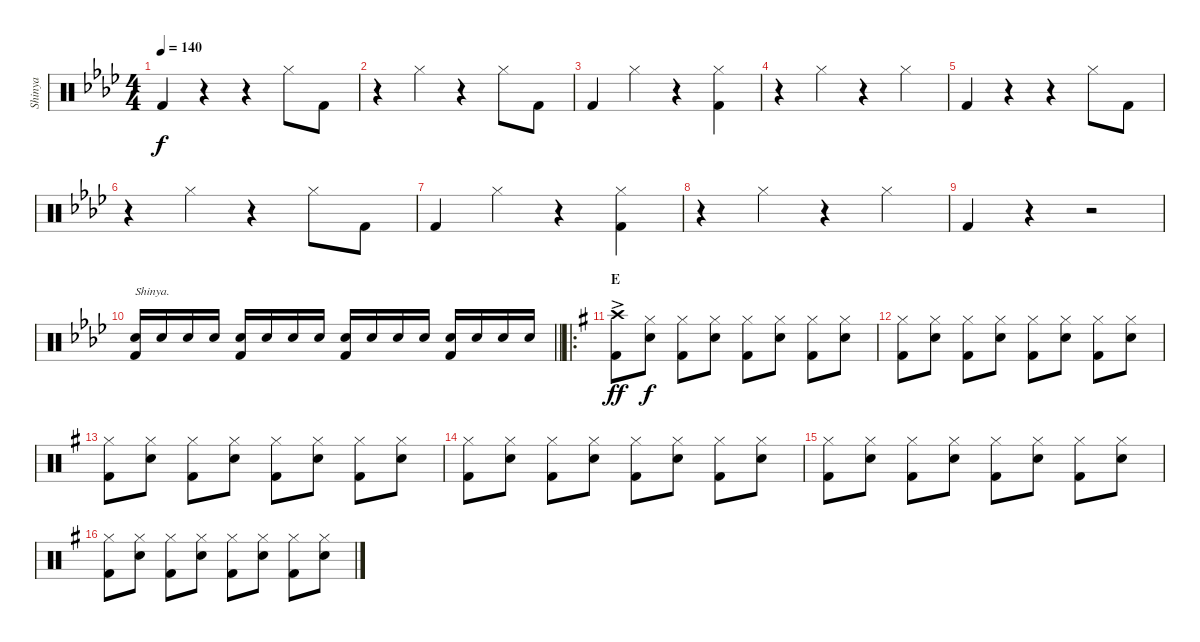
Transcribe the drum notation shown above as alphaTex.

\track ("Shinya" "Shinya") {instrument percussion}
\staff {score}
\articulation defaults
\ts (4 4)
\tempo 140
\clef neutral
\ks ab "Kick (hit) 2".4{dy f}
r.4 r.4 "Hi-Hat (closed)".8 "Kick (hit) 2".8 |
r.4 "Hi-Hat (closed)".4 r.4 "Hi-Hat (closed)".8 "Kick (hit) 2".8 |
"Kick (hit) 2".4 "Hi-Hat (closed)".4 r.4 ("Hi-Hat (closed)" "Kick (hit) 2").4 |
r.4 "Hi-Hat (closed)".4 r.4 "Hi-Hat (closed)".4 |
"Kick (hit) 2".4 r.4 r.4 "Hi-Hat (closed)".8 "Kick (hit) 2".8 |
r.4 "Hi-Hat (closed)".4 r.4 "Hi-Hat (closed)".8 "Kick (hit) 2".8 |
"Kick (hit) 2".4 "Hi-Hat (closed)".4 r.4 ("Hi-Hat (closed)" "Kick (hit) 2").4 |
r.4 "Hi-Hat (closed)".4 r.4 "Hi-Hat (closed)".4 |
"Kick (hit) 2".4 r.4 r.2 |
\barLineRight lightlight
("Snare (hit) 2" "Kick (hit) 2").16{txt "Shinya."} "Snare (hit) 2".16 "Snare (hit) 2".16 "Snare (hit) 2".16 ("Snare (hit) 2" "Kick (hit) 2").16 "Snare (hit) 2".16 "Snare (hit) 2".16 "Snare (hit) 2".16 ("Snare (hit) 2" "Kick (hit) 2").16 "Snare (hit) 2".16 "Snare (hit) 2".16 "Snare (hit) 2".16 ("Snare (hit) 2" "Kick (hit) 2").16 "Snare (hit) 2".16 "Snare (hit) 2".16 "Snare (hit) 2".16 |
\ro
\section ("" "E")
\ks g
("Crash high (hit)"{ac} "Kick (hit) 2").8{dy ff} ("Hi-Hat (closed)" "Snare (hit) 2").8{dy f} ("Hi-Hat (closed)" "Kick (hit) 2").8 ("Hi-Hat (closed)" "Snare (hit) 2").8 ("Hi-Hat (closed)" "Kick (hit) 2").8 ("Hi-Hat (closed)" "Snare (hit) 2").8 ("Hi-Hat (closed)" "Kick (hit) 2").8 ("Hi-Hat (closed)" "Snare (hit) 2").8 |
("Hi-Hat (closed)" "Kick (hit) 2").8 ("Hi-Hat (closed)" "Snare (hit) 2").8 ("Hi-Hat (closed)" "Kick (hit) 2").8 ("Hi-Hat (closed)" "Snare (hit) 2").8 ("Hi-Hat (closed)" "Kick (hit) 2").8 ("Hi-Hat (closed)" "Snare (hit) 2").8 ("Hi-Hat (closed)" "Kick (hit) 2").8 ("Hi-Hat (closed)" "Snare (hit) 2").8 |
("Hi-Hat (closed)" "Kick (hit) 2").8 ("Hi-Hat (closed)" "Snare (hit) 2").8 ("Hi-Hat (closed)" "Kick (hit) 2").8 ("Hi-Hat (closed)" "Snare (hit) 2").8 ("Hi-Hat (closed)" "Kick (hit) 2").8 ("Hi-Hat (closed)" "Snare (hit) 2").8 ("Hi-Hat (closed)" "Kick (hit) 2").8 ("Hi-Hat (closed)" "Snare (hit) 2").8 |
("Hi-Hat (closed)" "Kick (hit) 2").8 ("Hi-Hat (closed)" "Snare (hit) 2").8 ("Hi-Hat (closed)" "Kick (hit) 2").8 ("Hi-Hat (closed)" "Snare (hit) 2").8 ("Hi-Hat (closed)" "Kick (hit) 2").8 ("Hi-Hat (closed)" "Snare (hit) 2").8 ("Hi-Hat (closed)" "Kick (hit) 2").8 ("Hi-Hat (closed)" "Snare (hit) 2").8 |
("Hi-Hat (closed)" "Kick (hit) 2").8 ("Hi-Hat (closed)" "Snare (hit) 2").8 ("Hi-Hat (closed)" "Kick (hit) 2").8 ("Hi-Hat (closed)" "Snare (hit) 2").8 ("Hi-Hat (closed)" "Kick (hit) 2").8 ("Hi-Hat (closed)" "Snare (hit) 2").8 ("Hi-Hat (closed)" "Kick (hit) 2").8 ("Hi-Hat (closed)" "Snare (hit) 2").8 |
("Hi-Hat (closed)" "Kick (hit) 2").8 ("Hi-Hat (closed)" "Snare (hit) 2").8 ("Hi-Hat (closed)" "Kick (hit) 2").8 ("Hi-Hat (closed)" "Snare (hit) 2").8 ("Hi-Hat (closed)" "Kick (hit) 2").8 ("Hi-Hat (closed)" "Snare (hit) 2").8 ("Hi-Hat (closed)" "Kick (hit) 2").8 ("Hi-Hat (closed)" "Snare (hit) 2").8
